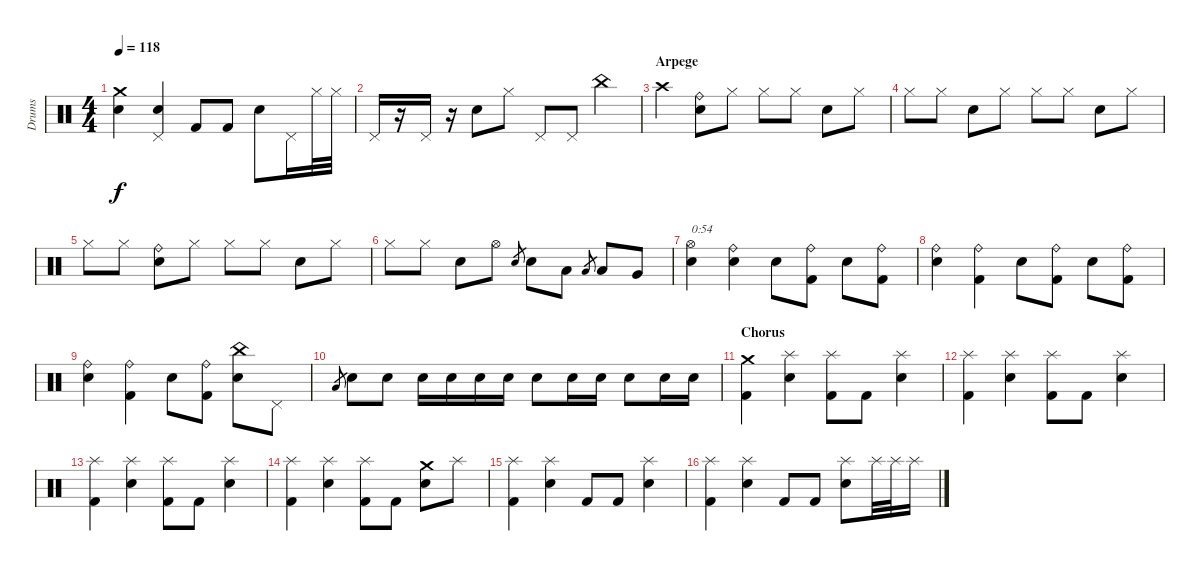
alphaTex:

\track ("Drums" "Drums") {instrument percussion}
\staff {score}
\articulation defaults
\ts (4 4)
\tempo 118
\clef neutral
\ks c
("Crash medium (hit)" "Snare (hit) 2").4{dy f} ("Pedal Hi-Hat (hit)" "Electric Snare (hit)").4 "Kick (hit) 2".8 "Kick (hit) 2".8 "Electric Snare (hit)".8 "Pedal Hi-Hat (hit)".16 "Hi-Hat (closed)".32 "Hi-Hat (closed)".32 |
"Pedal Hi-Hat (hit)".16 r.16 "Pedal Hi-Hat (hit)".16 r.16 "Electric Snare (hit)".8 "Hi-Hat (closed)".8 "Pedal Hi-Hat (hit)".8 "Pedal Hi-Hat (hit)".8 "China (hit)".4 |
\section ("" "Arpege")
"Crash high (hit)".4 ("Ride (bell)" "Electric Snare (hit)").8 "Hi-Hat (closed)".8 "Hi-Hat (closed)".8 "Hi-Hat (closed)".8 "Electric Snare (hit)".8 "Hi-Hat (closed)".8 |
"Hi-Hat (closed)".8 "Hi-Hat (closed)".8 "Electric Snare (hit)".8 "Hi-Hat (closed)".8 "Hi-Hat (closed)".8 "Hi-Hat (closed)".8 "Electric Snare (hit)".8 "Hi-Hat (closed)".8 |
"Hi-Hat (closed)".8 "Hi-Hat (closed)".8 ("Ride (bell)" "Electric Snare (hit)").8 "Hi-Hat (closed)".8 "Hi-Hat (closed)".8 "Hi-Hat (closed)".8 "Electric Snare (hit)".8 "Hi-Hat (closed)".8 |
"Hi-Hat (closed)".8 "Hi-Hat (closed)".8 "Electric Snare (hit)".8 "Hi-Hat (open)".8 "Electric Snare (hit)".8{gr} "Electric Snare (hit)".8 "Low Tom (hit)".8 "Low Tom (hit)".8{gr} "Low Tom (hit)".8 "Very Low Tom (hit)".8 |
("Hi-Hat (open)" "Electric Snare (hit)").4{txt "0:54"} ("Ride (bell)" "Electric Snare (hit)").4 "Electric Snare (hit)".8 ("Ride (bell)" "Kick (hit) 2").8 "Electric Snare (hit)".8 ("Ride (bell)" "Kick (hit) 2").8 |
("Ride (bell)" "Electric Snare (hit)").4 ("Ride (bell)" "Kick (hit) 2").4 "Electric Snare (hit)".8 ("Ride (bell)" "Kick (hit) 2").8 "Electric Snare (hit)".8 ("Ride (bell)" "Kick (hit) 2").8 |
("Ride (bell)" "Electric Snare (hit)").4 ("Ride (bell)" "Kick (hit) 2").4 "Electric Snare (hit)".8 ("Ride (bell)" "Kick (hit) 2").8 ("China (hit)" "Electric Snare (hit)").8 "Pedal Hi-Hat (hit)".8 |
"Low Tom (hit)".8{gr} "Electric Snare (hit)".8 "Electric Snare (hit)".8 "Electric Snare (hit)".16 "Electric Snare (hit)".16 "Electric Snare (hit)".16 "Electric Snare (hit)".16 "Electric Snare (hit)".8 "Electric Snare (hit)".16 "Electric Snare (hit)".16 "Electric Snare (hit)".8 "Electric Snare (hit)".16 "Electric Snare (hit)".16 |
\section ("" "Chorus")
("Crash medium (hit)" "Kick (hit) 2").4 ("Splash (hit)" "Electric Snare (hit)").4 ("Splash (hit)" "Kick (hit) 2").8 "Kick (hit) 2".8 ("Splash (hit)" "Electric Snare (hit)").4 |
("Splash (hit)" "Kick (hit) 2").4 ("Splash (hit)" "Electric Snare (hit)").4 ("Splash (hit)" "Kick (hit) 2").8 "Kick (hit) 2".8 ("Splash (hit)" "Electric Snare (hit)").4 |
("Splash (hit)" "Kick (hit) 2").4 ("Splash (hit)" "Electric Snare (hit)").4 ("Splash (hit)" "Kick (hit) 2").8 "Kick (hit) 2".8 ("Splash (hit)" "Electric Snare (hit)").4 |
("Splash (hit)" "Kick (hit) 2").4 ("Splash (hit)" "Electric Snare (hit)").4 ("Splash (hit)" "Kick (hit) 2").8 "Kick (hit) 2".8 ("Crash medium (hit)" "Electric Snare (hit)").8 "Splash (hit)".8 |
("Splash (hit)" "Kick (hit) 2").4 ("Splash (hit)" "Electric Snare (hit)").4 "Kick (hit) 2".8 "Kick (hit) 2".8 ("Splash (hit)" "Electric Snare (hit)").4 |
("Splash (hit)" "Kick (hit) 2").4 ("Splash (hit)" "Electric Snare (hit)").4 "Kick (hit) 2".8 "Kick (hit) 2".8 ("Splash (hit)" "Electric Snare (hit)").8 "Splash (hit)".32 "Splash (hit)".32 "Splash (hit)".16
